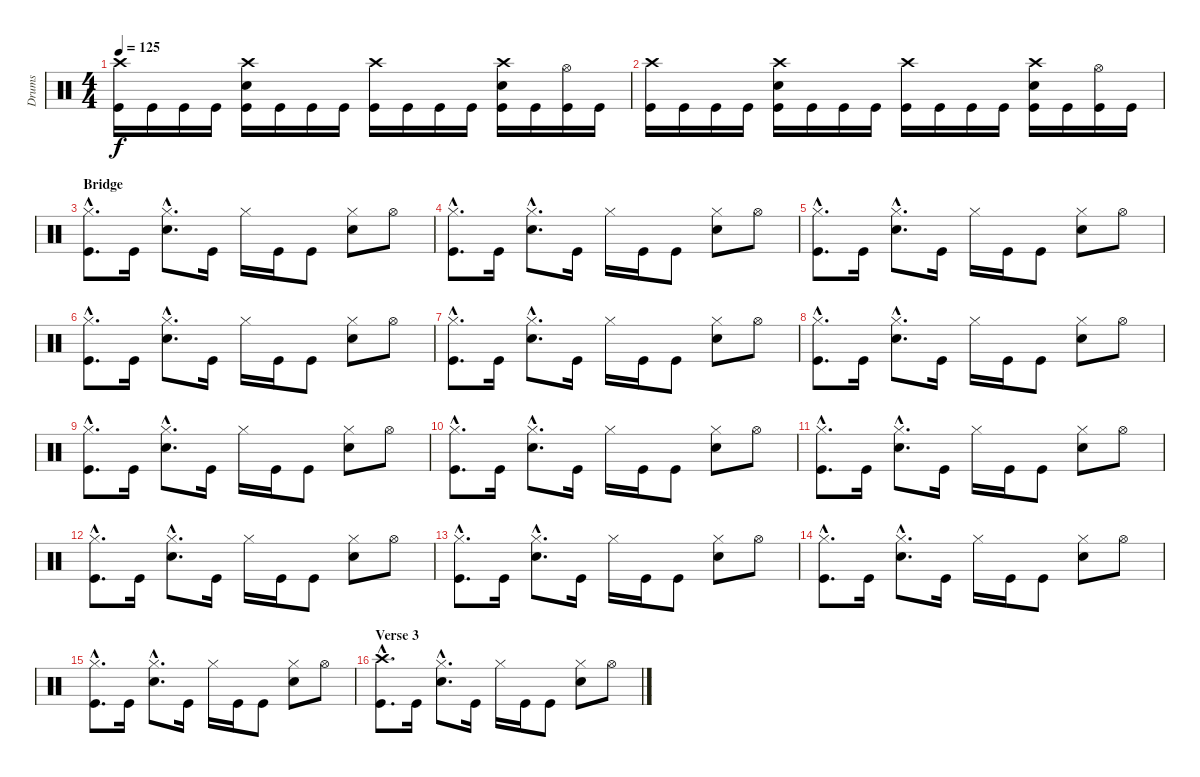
\track ("Drums" "Drums") {instrument percussion}
\staff {score}
\articulation defaults
\ts (4 4)
\tempo 125
\clef neutral
\ks c
("Crash high (hit)" "Kick (hit)").16{dy f} "Kick (hit)".16 "Kick (hit)".16 "Kick (hit)".16 ("Crash high (hit)" "Kick (hit)" "Electric Snare (hit)").16 "Kick (hit)".16 "Kick (hit)".16 "Kick (hit)".16 ("Crash high (hit)" "Kick (hit)").16 "Kick (hit)".16 "Kick (hit)".16 "Kick (hit)".16 ("Crash high (hit)" "Kick (hit)" "Electric Snare (hit)").16 "Kick (hit)".16 ("Hi-Hat (open)" "Kick (hit)").16 "Kick (hit)".16 |
("Crash high (hit)" "Kick (hit)").16 "Kick (hit)".16 "Kick (hit)".16 "Kick (hit)".16 ("Crash high (hit)" "Kick (hit)" "Electric Snare (hit)").16 "Kick (hit)".16 "Kick (hit)".16 "Kick (hit)".16 ("Crash high (hit)" "Kick (hit)").16 "Kick (hit)".16 "Kick (hit)".16 "Kick (hit)".16 ("Crash high (hit)" "Kick (hit)" "Electric Snare (hit)").16 "Kick (hit)".16 ("Hi-Hat (open)" "Kick (hit)").16 "Kick (hit)".16 |
\section ("" "Bridge")
("Hi-Hat (closed)"{hac} "Kick (hit)"{hac}).8{d} "Kick (hit)".16 ("Hi-Hat (closed)"{hac} "Electric Snare (hit)"{hac}).8{d} "Kick (hit)".16 "Hi-Hat (closed)".16 "Kick (hit)".16 "Kick (hit)".8 ("Hi-Hat (closed)" "Electric Snare (hit)").8 "Hi-Hat (open)".8 |
("Hi-Hat (closed)"{hac} "Kick (hit)"{hac}).8{d} "Kick (hit)".16 ("Hi-Hat (closed)"{hac} "Electric Snare (hit)"{hac}).8{d} "Kick (hit)".16 "Hi-Hat (closed)".16 "Kick (hit)".16 "Kick (hit)".8 ("Hi-Hat (closed)" "Electric Snare (hit)").8 "Hi-Hat (open)".8 |
("Hi-Hat (closed)"{hac} "Kick (hit)"{hac}).8{d} "Kick (hit)".16 ("Hi-Hat (closed)"{hac} "Electric Snare (hit)"{hac}).8{d} "Kick (hit)".16 "Hi-Hat (closed)".16 "Kick (hit)".16 "Kick (hit)".8 ("Hi-Hat (closed)" "Electric Snare (hit)").8 "Hi-Hat (open)".8 |
("Hi-Hat (closed)"{hac} "Kick (hit)"{hac}).8{d} "Kick (hit)".16 ("Hi-Hat (closed)"{hac} "Electric Snare (hit)"{hac}).8{d} "Kick (hit)".16 "Hi-Hat (closed)".16 "Kick (hit)".16 "Kick (hit)".8 ("Hi-Hat (closed)" "Electric Snare (hit)").8 "Hi-Hat (open)".8 |
("Hi-Hat (closed)"{hac} "Kick (hit)"{hac}).8{d} "Kick (hit)".16 ("Hi-Hat (closed)"{hac} "Electric Snare (hit)"{hac}).8{d} "Kick (hit)".16 "Hi-Hat (closed)".16 "Kick (hit)".16 "Kick (hit)".8 ("Hi-Hat (closed)" "Electric Snare (hit)").8 "Hi-Hat (open)".8 |
("Hi-Hat (closed)"{hac} "Kick (hit)"{hac}).8{d} "Kick (hit)".16 ("Hi-Hat (closed)"{hac} "Electric Snare (hit)"{hac}).8{d} "Kick (hit)".16 "Hi-Hat (closed)".16 "Kick (hit)".16 "Kick (hit)".8 ("Hi-Hat (closed)" "Electric Snare (hit)").8 "Hi-Hat (open)".8 |
("Hi-Hat (closed)"{hac} "Kick (hit)"{hac}).8{d} "Kick (hit)".16 ("Hi-Hat (closed)"{hac} "Electric Snare (hit)"{hac}).8{d} "Kick (hit)".16 "Hi-Hat (closed)".16 "Kick (hit)".16 "Kick (hit)".8 ("Hi-Hat (closed)" "Electric Snare (hit)").8 "Hi-Hat (open)".8 |
("Hi-Hat (closed)"{hac} "Kick (hit)"{hac}).8{d} "Kick (hit)".16 ("Hi-Hat (closed)"{hac} "Electric Snare (hit)"{hac}).8{d} "Kick (hit)".16 "Hi-Hat (closed)".16 "Kick (hit)".16 "Kick (hit)".8 ("Hi-Hat (closed)" "Electric Snare (hit)").8 "Hi-Hat (open)".8 |
("Hi-Hat (closed)"{hac} "Kick (hit)"{hac}).8{d} "Kick (hit)".16 ("Hi-Hat (closed)"{hac} "Electric Snare (hit)"{hac}).8{d} "Kick (hit)".16 "Hi-Hat (closed)".16 "Kick (hit)".16 "Kick (hit)".8 ("Hi-Hat (closed)" "Electric Snare (hit)").8 "Hi-Hat (open)".8 |
("Hi-Hat (closed)"{hac} "Kick (hit)"{hac}).8{d} "Kick (hit)".16 ("Hi-Hat (closed)"{hac} "Electric Snare (hit)"{hac}).8{d} "Kick (hit)".16 "Hi-Hat (closed)".16 "Kick (hit)".16 "Kick (hit)".8 ("Hi-Hat (closed)" "Electric Snare (hit)").8 "Hi-Hat (open)".8 |
("Hi-Hat (closed)"{hac} "Kick (hit)"{hac}).8{d} "Kick (hit)".16 ("Hi-Hat (closed)"{hac} "Electric Snare (hit)"{hac}).8{d} "Kick (hit)".16 "Hi-Hat (closed)".16 "Kick (hit)".16 "Kick (hit)".8 ("Hi-Hat (closed)" "Electric Snare (hit)").8 "Hi-Hat (open)".8 |
("Hi-Hat (closed)"{hac} "Kick (hit)"{hac}).8{d} "Kick (hit)".16 ("Hi-Hat (closed)"{hac} "Electric Snare (hit)"{hac}).8{d} "Kick (hit)".16 "Hi-Hat (closed)".16 "Kick (hit)".16 "Kick (hit)".8 ("Hi-Hat (closed)" "Electric Snare (hit)").8 "Hi-Hat (open)".8 |
("Hi-Hat (closed)"{hac} "Kick (hit)"{hac}).8{d} "Kick (hit)".16 ("Hi-Hat (closed)"{hac} "Electric Snare (hit)"{hac}).8{d} "Kick (hit)".16 "Hi-Hat (closed)".16 "Kick (hit)".16 "Kick (hit)".8 ("Hi-Hat (closed)" "Electric Snare (hit)").8 "Hi-Hat (open)".8 |
\section ("" "Verse 3")
("Crash high (hit)"{hac} "Kick (hit)"{hac}).8{d} "Kick (hit)".16 ("Hi-Hat (closed)"{hac} "Electric Snare (hit)"{hac}).8{d} "Kick (hit)".16 "Hi-Hat (closed)".16 "Kick (hit)".16 "Kick (hit)".8 ("Hi-Hat (closed)" "Electric Snare (hit)").8 "Hi-Hat (open)".8
